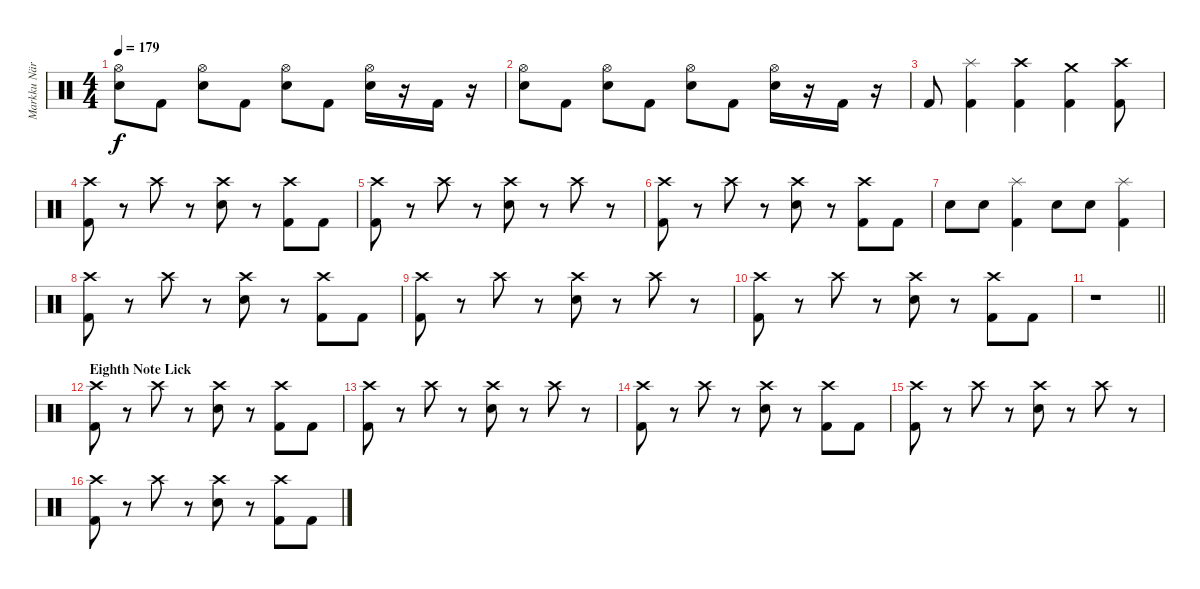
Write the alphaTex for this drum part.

\track ("Markku Näreneva (Drums)" "Markku När") {instrument percussion}
\staff {score}
\articulation defaults
\ts (4 4)
\tempo 179
\clef neutral
\ks c
("Snare (hit) 2" "Hi-Hat (open)").8{dy f} "Kick (hit) 2".8 ("Snare (hit) 2" "Hi-Hat (open)").8 "Kick (hit) 2".8 ("Snare (hit) 2" "Hi-Hat (open)").8 "Kick (hit) 2".8 ("Snare (hit) 2" "Hi-Hat (open)").16 r.16 "Kick (hit) 2".16 r.16 |
("Snare (hit) 2" "Hi-Hat (open)").8 "Kick (hit) 2".8 ("Snare (hit) 2" "Hi-Hat (open)").8 "Kick (hit) 2".8 ("Snare (hit) 2" "Hi-Hat (open)").8 "Kick (hit) 2".8 ("Snare (hit) 2" "Hi-Hat (open)").16 r.16 "Kick (hit) 2".16 r.16 |
"Kick (hit) 2".8 ("Kick (hit) 2" "Splash (hit)").4 ("Kick (hit) 2" "Crash high (hit)").4 ("Kick (hit) 2" "Crash medium (hit)").4 ("Kick (hit) 2" "Crash high (hit)").8 |
("Kick (hit) 2" "Crash high (hit)").8 r.8 "Crash high (hit)".8 r.8 ("Snare (hit) 2" "Crash high (hit)").8 r.8 ("Kick (hit) 2" "Crash high (hit)").8 "Kick (hit) 2".8 |
("Kick (hit) 2" "Crash high (hit)").8 r.8 "Crash high (hit)".8 r.8 ("Snare (hit) 2" "Crash high (hit)").8 r.8 "Crash high (hit)".8 r.8 |
("Kick (hit) 2" "Crash high (hit)").8 r.8 "Crash high (hit)".8 r.8 ("Snare (hit) 2" "Crash high (hit)").8 r.8 ("Kick (hit) 2" "Crash high (hit)").8 "Kick (hit) 2".8 |
"Snare (hit) 2".8 "Snare (hit) 2".8 ("Kick (hit) 2" "Splash (hit)").4 "Snare (hit) 2".8 "Snare (hit) 2".8 ("Kick (hit) 2" "Splash (hit)").4 |
("Kick (hit) 2" "Crash high (hit)").8 r.8 "Crash high (hit)".8 r.8 ("Snare (hit) 2" "Crash high (hit)").8 r.8 ("Kick (hit) 2" "Crash high (hit)").8 "Kick (hit) 2".8 |
("Kick (hit) 2" "Crash high (hit)").8 r.8 "Crash high (hit)".8 r.8 ("Snare (hit) 2" "Crash high (hit)").8 r.8 "Crash high (hit)".8 r.8 |
("Kick (hit) 2" "Crash high (hit)").8 r.8 "Crash high (hit)".8 r.8 ("Snare (hit) 2" "Crash high (hit)").8 r.8 ("Kick (hit) 2" "Crash high (hit)").8 "Kick (hit) 2".8 |
\barLineRight lightlight
r.1 |
\section ("" "Eighth Note Lick")
("Kick (hit) 2" "Crash high (hit)").8 r.8 "Crash high (hit)".8 r.8 ("Snare (hit) 2" "Crash high (hit)").8 r.8 ("Kick (hit) 2" "Crash high (hit)").8 "Kick (hit) 2".8 |
("Kick (hit) 2" "Crash high (hit)").8 r.8 "Crash high (hit)".8 r.8 ("Snare (hit) 2" "Crash high (hit)").8 r.8 "Crash high (hit)".8 r.8 |
("Kick (hit) 2" "Crash high (hit)").8 r.8 "Crash high (hit)".8 r.8 ("Snare (hit) 2" "Crash high (hit)").8 r.8 ("Kick (hit) 2" "Crash high (hit)").8 "Kick (hit) 2".8 |
("Kick (hit) 2" "Crash high (hit)").8 r.8 "Crash high (hit)".8 r.8 ("Snare (hit) 2" "Crash high (hit)").8 r.8 "Crash high (hit)".8 r.8 |
("Kick (hit) 2" "Crash high (hit)").8 r.8 "Crash high (hit)".8 r.8 ("Snare (hit) 2" "Crash high (hit)").8 r.8 ("Kick (hit) 2" "Crash high (hit)").8 "Kick (hit) 2".8
